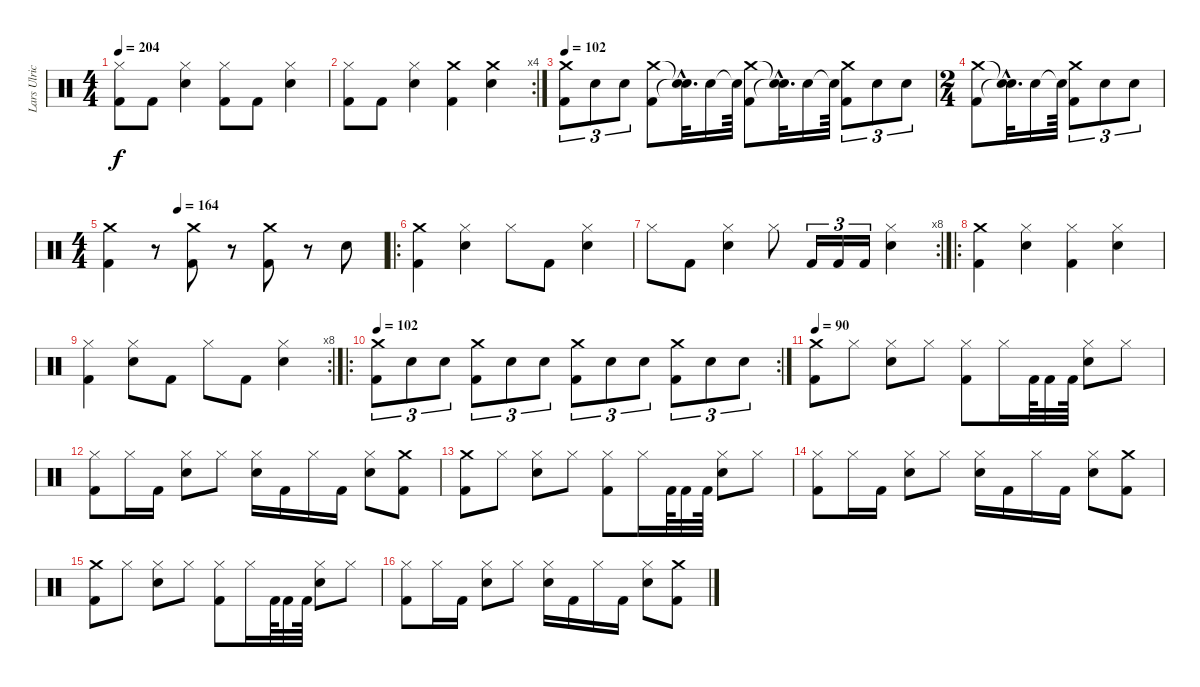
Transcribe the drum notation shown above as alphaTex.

\track ("Lars Ulrich (Drums)" "Lars Ulric") {instrument percussion}
\staff {score}
\articulation defaults
\ts (4 4)
\tempo 204
\clef neutral
\ks c
("Hi-Hat (closed)" "Kick (hit) 2").8{dy f} "Kick (hit) 2".8 ("Snare (hit) 2" "Hi-Hat (closed)").4 ("Hi-Hat (closed)" "Kick (hit) 2").8 "Kick (hit) 2".8 ("Snare (hit) 2" "Hi-Hat (closed)").4 |
\rc 4
("Hi-Hat (closed)" "Kick (hit) 2").8 "Kick (hit) 2".8 ("Snare (hit) 2" "Hi-Hat (closed)").4 ("Crash medium (hit)" "Kick (hit) 2").4 ("Crash medium (hit)" "Snare (hit) 2").4 |
\tempo 102
("Crash medium (hit)" "Kick (hit) 2").8{tu (3 2)} "Snare (hit) 2".8{tu (3 2)} "Snare (hit) 2".8{tu (3 2)} ("Crash medium (hit)" "Kick (hit) 2").8 ("Snare (hit)"{hac t} "Snare (hit)"{hac t}).32{d} "Snare (hit) 2".16 "Snare (hit)"{t}.64 ("Crash medium (hit)" "Kick (hit) 2").8 ("Snare (hit)"{hac t} "Snare (hit)"{hac t}).32{d} "Snare (hit) 2".16 "Snare (hit)"{t}.64 ("Crash medium (hit)" "Kick (hit) 2").8{tu (3 2)} "Snare (hit) 2".8{tu (3 2)} "Snare (hit) 2".8{tu (3 2)} |
\ts (2 4)
("Kick (hit) 2" "Crash medium (hit)").8 ("Snare (hit)"{hac t} "Snare (hit)"{hac t}).32{d} "Snare (hit) 2".16 "Snare (hit)"{t}.64 ("Kick (hit) 2" "Crash medium (hit)").8{tu (3 2)} "Snare (hit) 2".8{tu (3 2)} "Snare (hit) 2".8{tu (3 2)} |
\ts (4 4)
\tempo (164 0.25)
("Crash medium (hit)" "Kick (hit) 2").4 r.8 ("Kick (hit) 2" "Crash medium (hit)").8 r.8 ("Crash medium (hit)" "Kick (hit) 2").8 r.8 "Snare (hit) 2".8 |
\ro
("Kick (hit) 2" "Crash medium (hit)").4 ("Hi-Hat (closed)" "Snare (hit) 2").4 "Hi-Hat (closed)".8 "Kick (hit) 2".8 ("Snare (hit) 2" "Hi-Hat (closed)").4 |
\rc 8 "Hi-Hat (closed)".8 "Kick (hit) 2".8
("Snare (hit) 2" "Hi-Hat (closed)").4 "Hi-Hat (closed)".8 "Kick (hit) 2".16{tu (3 2)} "Kick (hit) 2".16{tu (3 2)} "Kick (hit) 2".16{tu (3 2)} ("Snare (hit) 2" "Hi-Hat (closed)").4 |
\ro
("Kick (hit) 2" "Crash medium (hit)").4 ("Hi-Hat (closed)" "Snare (hit) 2").4 ("Hi-Hat (closed)" "Kick (hit) 2").4 ("Snare (hit) 2" "Hi-Hat (closed)").4 |
\rc 8
("Hi-Hat (closed)" "Kick (hit) 2").4 ("Snare (hit) 2" "Hi-Hat (closed)").8 "Kick (hit) 2".8 "Hi-Hat (closed)".8 "Kick (hit) 2".8 ("Snare (hit) 2" "Hi-Hat (closed)").4 |
\ro
\rc 2
\tempo 102
("Kick (hit) 2" "Crash medium (hit)").8{tu (3 2)} "Snare (hit) 2".8{tu (3 2)} "Snare (hit) 2".8{tu (3 2)} ("Kick (hit) 2" "Crash medium (hit)").8{tu (3 2)} "Snare (hit) 2".8{tu (3 2)} "Snare (hit) 2".8{tu (3 2)} ("Kick (hit) 2" "Crash medium (hit)").8{tu (3 2)} "Snare (hit) 2".8{tu (3 2)} "Snare (hit) 2".8{tu (3 2)} ("Kick (hit) 2" "Crash medium (hit)").8{tu (3 2)} "Snare (hit) 2".8{tu (3 2)} "Snare (hit) 2".8{tu (3 2)} |
\tempo 90
("Crash medium (hit)" "Kick (hit) 2").8 "Hi-Hat (closed)".8 ("Snare (hit) 2" "Hi-Hat (closed)").8 "Hi-Hat (closed)".8 ("Hi-Hat (closed)" "Kick (hit) 2").8 "Hi-Hat (closed)".16 "Kick (hit) 2".64 "Kick (hit) 2".32 "Kick (hit) 2".64 ("Snare (hit) 2" "Hi-Hat (closed)").8 "Hi-Hat (closed)".8 |
("Hi-Hat (closed)" "Kick (hit) 2").8 "Hi-Hat (closed)".16 "Kick (hit) 2".16 ("Snare (hit) 2" "Hi-Hat (closed)").8 "Hi-Hat (closed)".8 ("Snare (hit) 2" "Hi-Hat (closed)").16 "Kick (hit) 2".16 "Hi-Hat (closed)".16 "Kick (hit) 2".16 ("Snare (hit) 2" "Hi-Hat (closed)").8 ("Crash medium (hit)" "Kick (hit) 2").8 |
("Crash medium (hit)" "Kick (hit) 2").8 "Hi-Hat (closed)".8 ("Snare (hit) 2" "Hi-Hat (closed)").8 "Hi-Hat (closed)".8 ("Hi-Hat (closed)" "Kick (hit) 2").8 "Hi-Hat (closed)".16 "Kick (hit) 2".64 "Kick (hit) 2".32 "Kick (hit) 2".64 ("Snare (hit) 2" "Hi-Hat (closed)").8 "Hi-Hat (closed)".8 |
("Hi-Hat (closed)" "Kick (hit) 2").8 "Hi-Hat (closed)".16 "Kick (hit) 2".16 ("Snare (hit) 2" "Hi-Hat (closed)").8 "Hi-Hat (closed)".8 ("Snare (hit) 2" "Hi-Hat (closed)").16 "Kick (hit) 2".16 "Hi-Hat (closed)".16 "Kick (hit) 2".16 ("Snare (hit) 2" "Hi-Hat (closed)").8 ("Crash medium (hit)" "Kick (hit) 2").8 |
("Crash medium (hit)" "Kick (hit) 2").8 "Hi-Hat (closed)".8 ("Snare (hit) 2" "Hi-Hat (closed)").8 "Hi-Hat (closed)".8 ("Hi-Hat (closed)" "Kick (hit) 2").8 "Hi-Hat (closed)".16 "Kick (hit) 2".64 "Kick (hit) 2".32 "Kick (hit) 2".64 ("Snare (hit) 2" "Hi-Hat (closed)").8 "Hi-Hat (closed)".8 |
("Hi-Hat (closed)" "Kick (hit) 2").8 "Hi-Hat (closed)".16 "Kick (hit) 2".16 ("Snare (hit) 2" "Hi-Hat (closed)").8 "Hi-Hat (closed)".8 ("Snare (hit) 2" "Hi-Hat (closed)").16 "Kick (hit) 2".16 "Hi-Hat (closed)".16 "Kick (hit) 2".16 ("Snare (hit) 2" "Hi-Hat (closed)").8 ("Crash medium (hit)" "Kick (hit) 2").8
